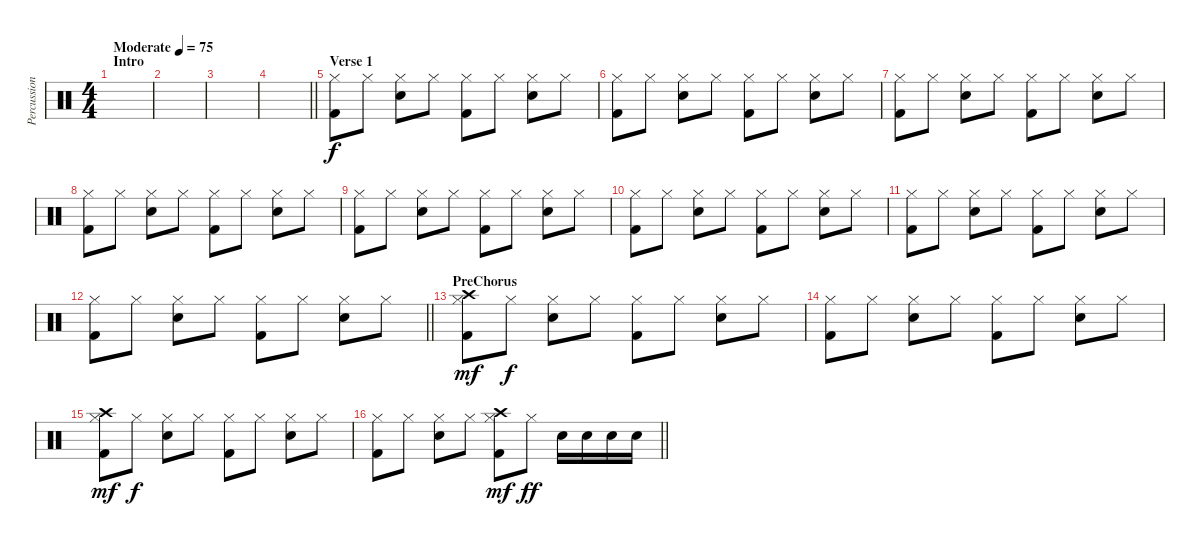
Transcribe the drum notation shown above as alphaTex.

\track ("Percussion" "Percussion") {instrument percussion}
\staff {score}
\articulation defaults
\ts (4 4)
\section ("" "Intro")
\tempo (75 "Moderate")
\clef neutral
\ks c
|
|
|
\barLineRight lightlight
|
\section ("" "Verse 1")
("Hi-Hat (closed)" "Kick (hit) 2").8 "Hi-Hat (closed)".8 ("Hi-Hat (closed)" "Snare (hit) 2").8 "Hi-Hat (closed)".8 ("Hi-Hat (closed)" "Kick (hit) 2").8 "Hi-Hat (closed)".8 ("Hi-Hat (closed)" "Snare (hit) 2").8 "Hi-Hat (closed)".8 |
("Hi-Hat (closed)" "Kick (hit) 2").8 "Hi-Hat (closed)".8 ("Hi-Hat (closed)" "Snare (hit) 2").8 "Hi-Hat (closed)".8 ("Hi-Hat (closed)" "Kick (hit) 2").8 "Hi-Hat (closed)".8 ("Hi-Hat (closed)" "Snare (hit) 2").8 "Hi-Hat (closed)".8 |
("Hi-Hat (closed)" "Kick (hit) 2").8 "Hi-Hat (closed)".8 ("Hi-Hat (closed)" "Snare (hit) 2").8 "Hi-Hat (closed)".8 ("Hi-Hat (closed)" "Kick (hit) 2").8 "Hi-Hat (closed)".8 ("Hi-Hat (closed)" "Snare (hit) 2").8 "Hi-Hat (closed)".8 |
("Hi-Hat (closed)" "Kick (hit) 2").8 "Hi-Hat (closed)".8 ("Hi-Hat (closed)" "Snare (hit) 2").8 "Hi-Hat (closed)".8 ("Hi-Hat (closed)" "Kick (hit) 2").8 "Hi-Hat (closed)".8 ("Hi-Hat (closed)" "Snare (hit) 2").8 "Hi-Hat (closed)".8 |
("Hi-Hat (closed)" "Kick (hit) 2").8 "Hi-Hat (closed)".8 ("Hi-Hat (closed)" "Snare (hit) 2").8 "Hi-Hat (closed)".8 ("Hi-Hat (closed)" "Kick (hit) 2").8 "Hi-Hat (closed)".8 ("Hi-Hat (closed)" "Snare (hit) 2").8 "Hi-Hat (closed)".8 |
("Hi-Hat (closed)" "Kick (hit) 2").8 "Hi-Hat (closed)".8 ("Hi-Hat (closed)" "Snare (hit) 2").8 "Hi-Hat (closed)".8 ("Hi-Hat (closed)" "Kick (hit) 2").8 "Hi-Hat (closed)".8 ("Hi-Hat (closed)" "Snare (hit) 2").8 "Hi-Hat (closed)".8 |
("Hi-Hat (closed)" "Kick (hit) 2").8 "Hi-Hat (closed)".8 ("Hi-Hat (closed)" "Snare (hit) 2").8 "Hi-Hat (closed)".8 ("Hi-Hat (closed)" "Kick (hit) 2").8 "Hi-Hat (closed)".8 ("Hi-Hat (closed)" "Snare (hit) 2").8 "Hi-Hat (closed)".8 |
\barLineRight lightlight
("Hi-Hat (closed)" "Kick (hit) 2").8 "Hi-Hat (closed)".8 ("Hi-Hat (closed)" "Snare (hit) 2").8 "Hi-Hat (closed)".8 ("Hi-Hat (closed)" "Kick (hit) 2").8 "Hi-Hat (closed)".8 ("Hi-Hat (closed)" "Snare (hit) 2").8 "Hi-Hat (closed)".8 |
\section ("" "PreChorus")
("Hi-Hat (closed)" "Kick (hit) 2" "Crash high (hit)").8{dy mf} "Hi-Hat (closed)".8{dy f} ("Hi-Hat (closed)" "Snare (hit) 2").8 "Hi-Hat (closed)".8 ("Hi-Hat (closed)" "Kick (hit) 2").8 "Hi-Hat (closed)".8 ("Hi-Hat (closed)" "Snare (hit) 2").8 "Hi-Hat (closed)".8 |
("Hi-Hat (closed)" "Kick (hit) 2").8 "Hi-Hat (closed)".8 ("Hi-Hat (closed)" "Snare (hit) 2").8 "Hi-Hat (closed)".8 ("Hi-Hat (closed)" "Kick (hit) 2").8 "Hi-Hat (closed)".8 ("Hi-Hat (closed)" "Snare (hit) 2").8 "Hi-Hat (closed)".8 |
("Hi-Hat (closed)" "Kick (hit) 2" "Crash high (hit)").8{dy mf} "Hi-Hat (closed)".8{dy f} ("Hi-Hat (closed)" "Snare (hit) 2").8 "Hi-Hat (closed)".8 ("Hi-Hat (closed)" "Kick (hit) 2").8 "Hi-Hat (closed)".8 ("Hi-Hat (closed)" "Snare (hit) 2").8 "Hi-Hat (closed)".8 |
\barLineRight lightlight
("Hi-Hat (closed)" "Kick (hit) 2").8 "Hi-Hat (closed)".8 ("Hi-Hat (closed)" "Snare (hit) 2").8 "Hi-Hat (closed)".8 ("Hi-Hat (closed)" "Kick (hit) 2" "Crash high (hit)").8{dy mf} "Hi-Hat (closed)".8{dy ff} "Snare (hit) 2".16 "Snare (hit) 2".16 "Snare (hit) 2".16 "Snare (hit) 2".16
